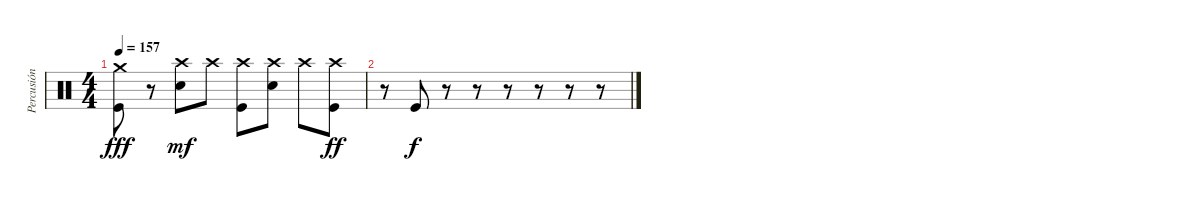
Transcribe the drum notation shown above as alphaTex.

\track ("Percusión" "Percusión") {instrument percussion}
\staff {score}
\articulation defaults
\ts (4 4)
\tempo 157
\clef neutral
\ks c
("Crash medium (hit)" "Kick (hit)").8{dy fff} r.8 ("Crash high (hit)" "Electric Snare (hit)").8{dy mf} "Crash high (hit)".8 ("Crash high (hit)" "Kick (hit)").8 ("Crash high (hit)" "Electric Snare (hit)").8 "Crash high (hit)".8 ("Crash high (hit)" "Kick (hit)").8{dy ff} |
r.8 "Kick (hit)".8{dy f} r.8 r.8 r.8 r.8 r.8 r.8
